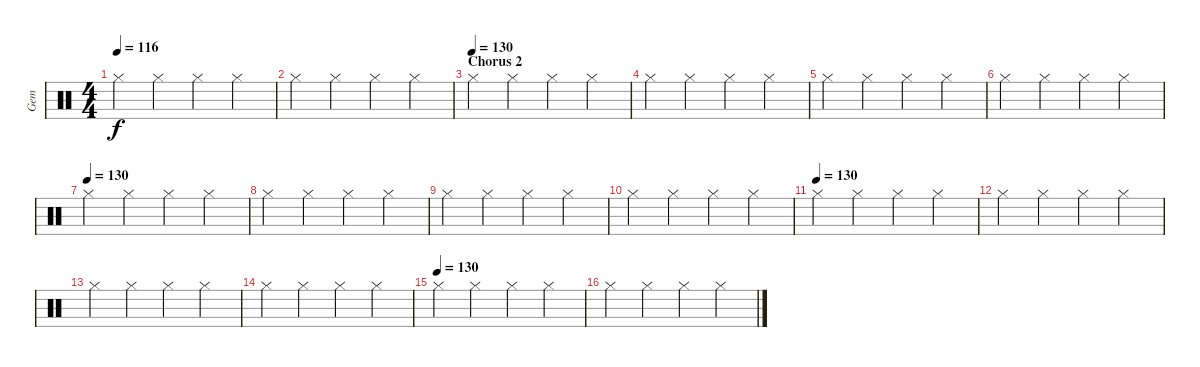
\track ("Gem" "Gem") {instrument percussion}
\staff {score}
\articulation defaults
\ts (4 4)
\tempo 116
\clef neutral
\ks c "Hi-Hat (closed)".4{dy f} "Hi-Hat (closed)".4 "Hi-Hat (closed)".4 "Hi-Hat (closed)".4
|
"Hi-Hat (closed)".4 "Hi-Hat (closed)".4 "Hi-Hat (closed)".4 "Hi-Hat (closed)".4 |
\section ("" "Chorus 2")
\tempo (130)
"Hi-Hat (closed)".4 "Hi-Hat (closed)".4 "Hi-Hat (closed)".4 "Hi-Hat (closed)".4 |
"Hi-Hat (closed)".4 "Hi-Hat (closed)".4 "Hi-Hat (closed)".4 "Hi-Hat (closed)".4 |
"Hi-Hat (closed)".4 "Hi-Hat (closed)".4 "Hi-Hat (closed)".4 "Hi-Hat (closed)".4 |
"Hi-Hat (closed)".4 "Hi-Hat (closed)".4 "Hi-Hat (closed)".4 "Hi-Hat (closed)".4 |
\tempo (130)
"Hi-Hat (closed)".4 "Hi-Hat (closed)".4 "Hi-Hat (closed)".4 "Hi-Hat (closed)".4 |
"Hi-Hat (closed)".4 "Hi-Hat (closed)".4 "Hi-Hat (closed)".4 "Hi-Hat (closed)".4 |
"Hi-Hat (closed)".4 "Hi-Hat (closed)".4 "Hi-Hat (closed)".4 "Hi-Hat (closed)".4 |
"Hi-Hat (closed)".4 "Hi-Hat (closed)".4 "Hi-Hat (closed)".4 "Hi-Hat (closed)".4 |
\tempo (130)
"Hi-Hat (closed)".4 "Hi-Hat (closed)".4 "Hi-Hat (closed)".4 "Hi-Hat (closed)".4 |
"Hi-Hat (closed)".4 "Hi-Hat (closed)".4 "Hi-Hat (closed)".4 "Hi-Hat (closed)".4 |
"Hi-Hat (closed)".4 "Hi-Hat (closed)".4 "Hi-Hat (closed)".4 "Hi-Hat (closed)".4 |
"Hi-Hat (closed)".4 "Hi-Hat (closed)".4 "Hi-Hat (closed)".4 "Hi-Hat (closed)".4 |
\tempo (130)
"Hi-Hat (closed)".4 "Hi-Hat (closed)".4 "Hi-Hat (closed)".4 "Hi-Hat (closed)".4 |
"Hi-Hat (closed)".4 "Hi-Hat (closed)".4 "Hi-Hat (closed)".4 "Hi-Hat (closed)".4
